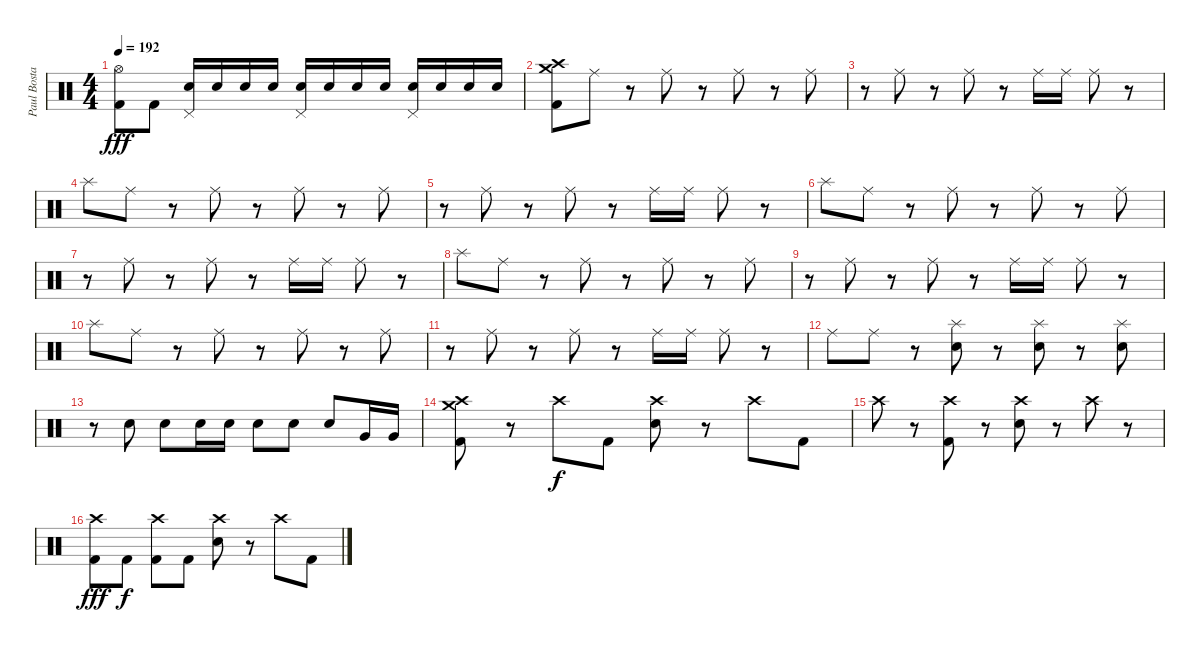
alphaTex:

\track ("Paul Bostaph" "Paul Bosta") {instrument percussion}
\staff {score}
\articulation defaults
\ts (4 4)
\tempo 192
\clef neutral
\ks c
("Kick (hit) 2" "Hi-Hat (open)").8{dy fff} "Kick (hit) 2".8 ("Pedal Hi-Hat (hit)" "Electric Snare (hit)").16 "Electric Snare (hit)".16 "Electric Snare (hit)".16 "Electric Snare (hit)".16 ("Pedal Hi-Hat (hit)" "Electric Snare (hit)").16 "Electric Snare (hit)".16 "Electric Snare (hit)".16 "Electric Snare (hit)".16 ("Pedal Hi-Hat (hit)" "Electric Snare (hit)").16 "Electric Snare (hit)".16 "Electric Snare (hit)".16 "Electric Snare (hit)".16 |
("Crash medium (hit)" "Crash high (hit)" "Kick (hit) 2").8 "Ride (middle)".8 r.8 "Ride (middle)".8 r.8 "Ride (middle)".8 r.8 "Ride (middle)".8 |
r.8 "Ride (middle)".8 r.8 "Ride (middle)".8 r.8 "Ride (middle)".16 "Ride (middle)".16 "Ride (middle)".8 r.8 |
"Splash (hit)".8 "Ride (middle)".8 r.8 "Ride (middle)".8 r.8 "Ride (middle)".8 r.8 "Ride (middle)".8 |
r.8 "Ride (middle)".8 r.8 "Ride (middle)".8 r.8 "Ride (middle)".16 "Ride (middle)".16 "Ride (middle)".8 r.8 |
"Splash (hit)".8 "Ride (middle)".8 r.8 "Ride (middle)".8 r.8 "Ride (middle)".8 r.8 "Ride (middle)".8 |
r.8 "Ride (middle)".8 r.8 "Ride (middle)".8 r.8 "Ride (middle)".16 "Ride (middle)".16 "Ride (middle)".8 r.8 |
"Splash (hit)".8 "Ride (middle)".8 r.8 "Ride (middle)".8 r.8 "Ride (middle)".8 r.8 "Ride (middle)".8 |
r.8 "Ride (middle)".8 r.8 "Ride (middle)".8 r.8 "Ride (middle)".16 "Ride (middle)".16 "Ride (middle)".8 r.8 |
"Splash (hit)".8 "Ride (middle)".8 r.8 "Ride (middle)".8 r.8 "Ride (middle)".8 r.8 "Ride (middle)".8 |
r.8 "Ride (middle)".8 r.8 "Ride (middle)".8 r.8 "Ride (middle)".16 "Ride (middle)".16 "Ride (middle)".8 r.8 |
"Ride (middle)".8 "Ride (middle)".8 r.8 ("Splash (hit)" "Electric Snare (hit)").8 r.8 ("Splash (hit)" "Electric Snare (hit)").8 r.8 ("Splash (hit)" "Electric Snare (hit)").8 |
r.8 "Electric Snare (hit)".8 "Electric Snare (hit)".8 "Electric Snare (hit)".16 "Electric Snare (hit)".16 "Electric Snare (hit)".8 "Electric Snare (hit)".8 "Electric Snare (hit)".8 "Very Low Tom (hit)".16 "Very Low Tom (hit)".16 |
("Crash high (hit)" "Crash medium (hit)" "Kick (hit) 2").8 r.8 "Crash high (hit)".8{dy f} "Kick (hit) 2".8 ("Electric Snare (hit)" "Crash high (hit)").8 r.8 "Crash high (hit)".8 "Kick (hit) 2".8 |
"Crash high (hit)".8 r.8 ("Kick (hit) 2" "Crash high (hit)").8 r.8 ("Electric Snare (hit)" "Crash high (hit)").8 r.8 "Crash high (hit)".8 r.8 |
("Crash high (hit)" "Kick (hit) 2").8{dy fff} "Kick (hit) 2".8{dy f} ("Crash high (hit)" "Kick (hit) 2").8 "Kick (hit) 2".8 ("Electric Snare (hit)" "Crash high (hit)").8 r.8 "Crash high (hit)".8 "Kick (hit) 2".8
